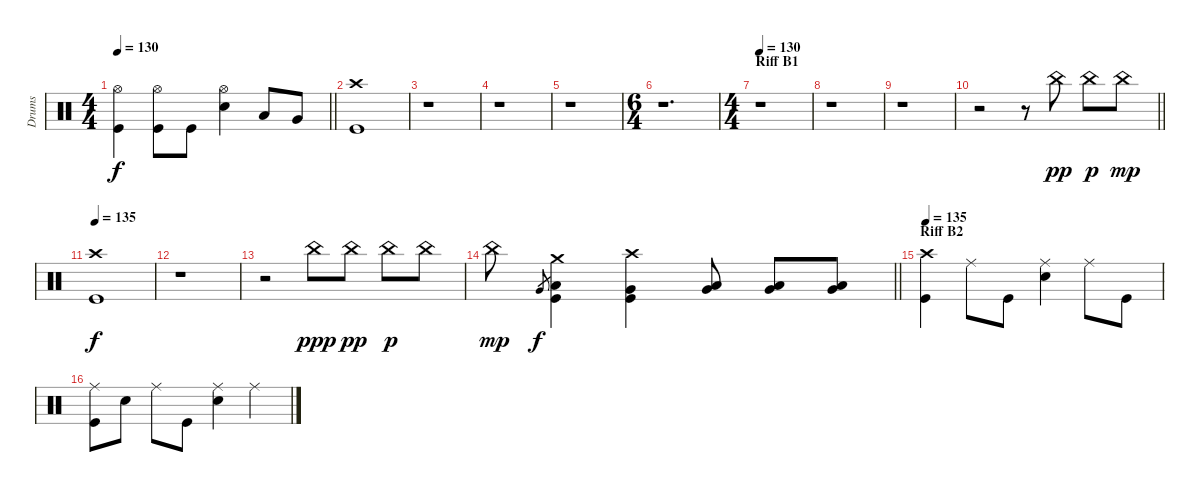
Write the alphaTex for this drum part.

\track ("Drums" "Drums") {instrument percussion}
\staff {score}
\articulation defaults
\ts (4 4)
\tempo 130
\clef neutral
\barLineRight lightlight
\ks c
("Hi-Hat (open)" "Kick (hit)").4{dy f} ("Hi-Hat (open)" "Kick (hit)").8 "Kick (hit)".8 ("Hi-Hat (open)" "Snare (hit) 2").4 "Low Tom (hit)".8 "Very Low Tom (hit)".8 |
("Crash high (hit)" "Kick (hit)").1 |
r.1 |
r.1{volume 3} |
r.1 |
\ts (6 4)
r.1{d} |
\ts (4 4)
\section ("" "Riff B1")
\tempo 130
r.1{volume 16} |
r.1 |
r.1 |
\barLineRight lightlight
r.2 r.8 "China (hit)".8{dy pp} "China (hit)".8{dy p} "China (hit)".8{dy mp} |
\tempo 135
("Crash high (hit)" "Kick (hit)").1{dy f} |
r.1 |
r.2 "China (hit)".8{dy ppp} "China (hit)".8{dy pp} "China (hit)".8{dy p} "China (hit)".8 |
\barLineRight lightlight "China (hit)".8{dy mp} "Very Low Tom (hit)".8{gr dy f}
("Crash medium (hit)" "Low Tom (hit)" "Kick (hit)").4 ("Crash high (hit)" "Very Low Tom (hit)" "Kick (hit)").4 ("Low Tom (hit)" "Very Low Tom (hit)").8 ("Low Tom (hit)" "Very Low Tom (hit)").8 ("Low Floor Tom (hit)" "Very Low Tom (hit)").8 |
\section ("" "Riff B2")
\tempo 135
("Crash high (hit)" "Kick (hit)").4 "Ride (middle)".8 "Kick (hit)".8 ("Ride (middle)" "Snare (hit) 2").4 "Ride (middle)".8 "Kick (hit)".8 |
("Ride (middle)" "Kick (hit)").8 "Snare (hit) 2".8 "Ride (middle)".8 "Kick (hit)".8 ("Ride (middle)" "Snare (hit) 2").4 "Ride (middle)".4
